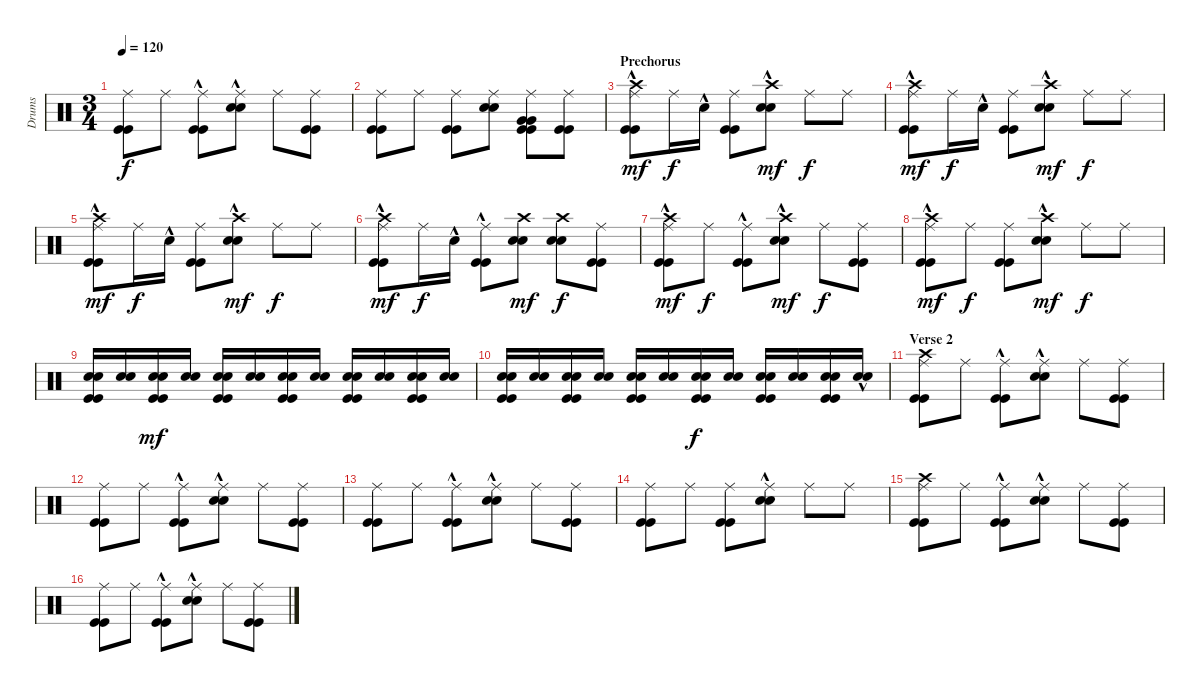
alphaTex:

\track ("Drums" "Drums") {instrument percussion}
\staff {score}
\articulation defaults
\ts (3 4)
\tempo 120
\clef neutral
\ks c
("Kick (hit)" "Kick (hit)" "Ride (middle)").8{dy f} "Ride (middle)".8 ("Kick (hit)"{hac} "Kick (hit)"{hac} "Ride (middle)").8 ("Snare (hit) 2"{hac} "Snare (hit) 2"{hac} "Ride (middle)").8 "Ride (middle)".8 ("Kick (hit)" "Kick (hit)" "Ride (middle)").8 |
("Kick (hit)" "Kick (hit)" "Ride (middle)").8 "Ride (middle)".8 ("Kick (hit)" "Kick (hit)" "Ride (middle)").8 ("Snare (hit) 2" "Snare (hit) 2" "Ride (middle)").8 ("Kick (hit)" "Kick (hit)" "Very Low Tom (hit)" "Very Low Tom (hit)" "Ride (middle)").8 ("Kick (hit)" "Kick (hit)" "Ride (middle)").8 |
\section ("" "Prechorus")
("Kick (hit)" "Kick (hit)" "Ride (middle)" "Crash high (hit)"{hac}).8{dy mf} "Ride (middle)".16{dy f} "Snare (hit) 2"{hac}.16 ("Kick (hit)" "Kick (hit)" "Ride (middle)").8 ("Snare (hit) 2" "Snare (hit) 2" "Crash high (hit)"{hac}).8{dy mf} "Ride (middle)".8{dy f} "Ride (middle)".8 |
("Kick (hit)" "Kick (hit)" "Ride (middle)" "Crash high (hit)"{hac}).8{dy mf} "Ride (middle)".16{dy f} "Snare (hit) 2"{hac}.16 ("Kick (hit)" "Kick (hit)" "Ride (middle)").8 ("Snare (hit) 2" "Snare (hit) 2" "Crash high (hit)"{hac}).8{dy mf} "Ride (middle)".8{dy f} "Ride (middle)".8 |
("Kick (hit)" "Kick (hit)" "Ride (middle)" "Crash high (hit)"{hac}).8{dy mf} "Ride (middle)".16{dy f} "Snare (hit) 2"{hac}.16 ("Kick (hit)" "Kick (hit)" "Ride (middle)").8 ("Snare (hit) 2" "Snare (hit) 2" "Crash high (hit)"{hac}).8{dy mf} "Ride (middle)".8{dy f} "Ride (middle)".8 |
("Kick (hit)" "Kick (hit)" "Ride (middle)" "Crash high (hit)"{hac}).8{dy mf} "Ride (middle)".16{dy f} "Snare (hit) 2"{hac}.16 ("Kick (hit)"{hac} "Kick (hit)"{hac} "Ride (middle)"{hac}).8 ("Snare (hit) 2" "Snare (hit) 2" "Crash high (hit)").8{dy mf} ("Snare (hit) 2" "Snare (hit) 2" "Crash high (hit)").8{dy f} ("Kick (hit)" "Kick (hit)" "Ride (middle)").8 |
("Kick (hit)" "Kick (hit)" "Ride (middle)" "Crash high (hit)"{hac}).8{dy mf} "Ride (middle)".8{dy f} ("Kick (hit)"{hac} "Kick (hit)"{hac} "Ride (middle)").8 ("Snare (hit) 2"{hac} "Snare (hit) 2"{hac} "Crash high (hit)"{hac}).8{dy mf} "Ride (middle)".8{dy f} ("Kick (hit)" "Kick (hit)" "Ride (middle)").8 |
("Kick (hit)" "Kick (hit)" "Ride (middle)" "Crash high (hit)"{hac}).8{dy mf} "Ride (middle)".8{dy f} ("Kick (hit)" "Kick (hit)" "Ride (middle)").8 ("Snare (hit) 2"{hac} "Snare (hit) 2"{hac} "Crash high (hit)").8{dy mf} "Ride (middle)".8{dy f} "Ride (middle)".8 |
("Kick (hit)" "Kick (hit)" "Snare (hit) 2" "Snare (hit) 2").16 ("Snare (hit) 2" "Snare (hit) 2").16 ("Kick (hit)" "Kick (hit)" "Snare (hit) 2" "Snare (hit) 2").16{dy mf} ("Snare (hit) 2" "Snare (hit) 2").16 ("Kick (hit)" "Kick (hit)" "Snare (hit) 2" "Snare (hit) 2").16 ("Snare (hit) 2" "Snare (hit) 2").16 ("Kick (hit)" "Kick (hit)" "Snare (hit) 2" "Snare (hit) 2").16 ("Snare (hit) 2" "Snare (hit) 2").16 ("Kick (hit)" "Kick (hit)" "Snare (hit) 2" "Snare (hit) 2").16 ("Snare (hit) 2" "Snare (hit) 2").16 ("Kick (hit)" "Kick (hit)" "Snare (hit) 2" "Snare (hit) 2").16 ("Snare (hit) 2" "Snare (hit) 2").16 |
("Kick (hit)" "Kick (hit)" "Snare (hit) 2" "Snare (hit) 2").16 ("Snare (hit) 2" "Snare (hit) 2").16 ("Kick (hit)" "Kick (hit)" "Snare (hit) 2" "Snare (hit) 2").16 ("Snare (hit) 2" "Snare (hit) 2").16 ("Kick (hit)" "Kick (hit)" "Snare (hit) 2" "Snare (hit) 2").16 ("Snare (hit) 2" "Snare (hit) 2").16 ("Kick (hit)" "Kick (hit)" "Snare (hit) 2" "Snare (hit) 2").16{dy f} ("Snare (hit) 2" "Snare (hit) 2").16 ("Kick (hit)" "Kick (hit)" "Snare (hit) 2" "Snare (hit) 2").16 ("Snare (hit) 2" "Snare (hit) 2").16 ("Kick (hit)" "Kick (hit)" "Snare (hit) 2" "Snare (hit) 2").16 ("Snare (hit) 2"{hac} "Snare (hit) 2"{hac}).16 |
\section ("" "Verse 2")
("Kick (hit)" "Kick (hit)" "Ride (middle)" "Crash high (hit)").8 "Ride (middle)".8 ("Kick (hit)"{hac} "Kick (hit)"{hac} "Ride (middle)").8 ("Snare (hit) 2"{hac} "Snare (hit) 2"{hac} "Ride (middle)").8 "Ride (middle)".8 ("Kick (hit)" "Kick (hit)" "Ride (middle)").8 |
("Kick (hit)" "Kick (hit)" "Ride (middle)").8 "Ride (middle)".8 ("Kick (hit)"{hac} "Kick (hit)"{hac} "Ride (middle)").8 ("Snare (hit) 2"{hac} "Snare (hit) 2"{hac} "Ride (middle)").8 "Ride (middle)".8 ("Kick (hit)" "Kick (hit)" "Ride (middle)").8 |
("Kick (hit)" "Kick (hit)" "Ride (middle)").8 "Ride (middle)".8 ("Kick (hit)"{hac} "Kick (hit)"{hac} "Ride (middle)").8 ("Snare (hit) 2"{hac} "Snare (hit) 2"{hac} "Ride (middle)").8 "Ride (middle)".8 ("Kick (hit)" "Kick (hit)" "Ride (middle)").8 |
("Kick (hit)" "Kick (hit)" "Ride (middle)").8 "Ride (middle)".8 ("Kick (hit)" "Kick (hit)" "Ride (middle)").8 ("Snare (hit) 2"{hac} "Snare (hit) 2"{hac} "Ride (middle)").8 "Ride (middle)".8 "Ride (middle)".8 |
("Kick (hit)" "Kick (hit)" "Ride (middle)" "Crash high (hit)").8 "Ride (middle)".8 ("Kick (hit)"{hac} "Kick (hit)"{hac} "Ride (middle)").8 ("Snare (hit) 2"{hac} "Snare (hit) 2"{hac} "Ride (middle)").8 "Ride (middle)".8 ("Kick (hit)" "Kick (hit)" "Ride (middle)").8 |
("Kick (hit)" "Kick (hit)" "Ride (middle)").8 "Ride (middle)".8 ("Kick (hit)"{hac} "Kick (hit)"{hac} "Ride (middle)").8 ("Snare (hit) 2"{hac} "Snare (hit) 2"{hac} "Ride (middle)").8 "Ride (middle)".8 ("Kick (hit)" "Kick (hit)" "Ride (middle)").8
